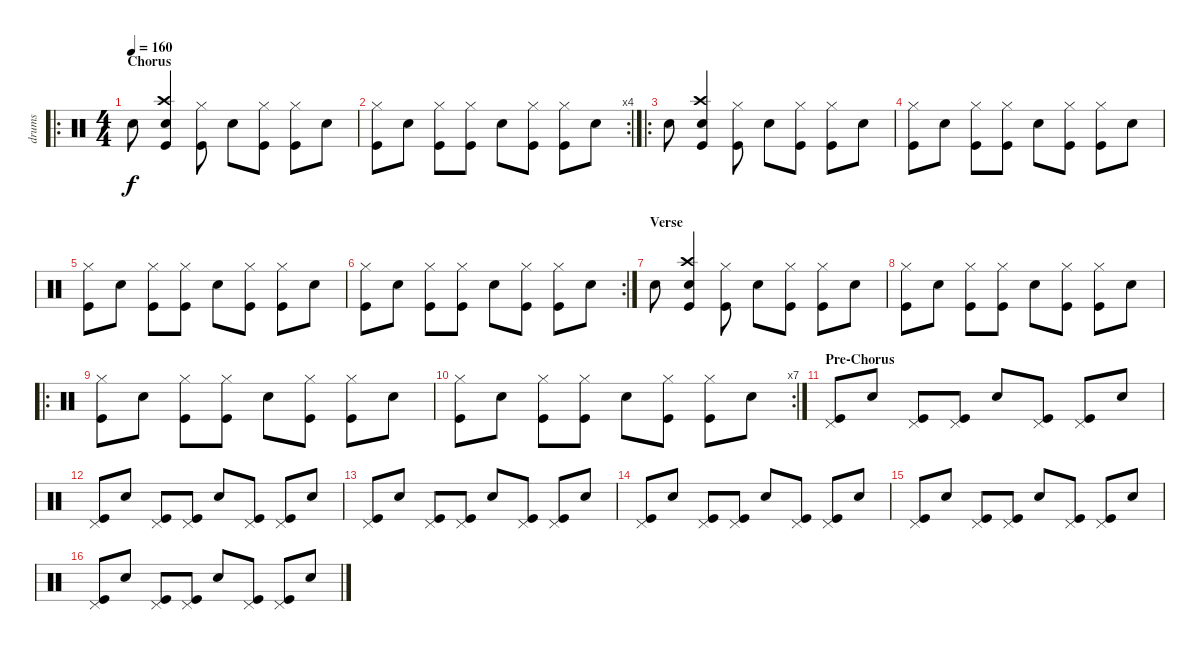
\track ("drums" "drums") {instrument percussion}
\staff {score}
\articulation defaults
\ro
\ts (4 4)
\section ("" "Chorus")
\tempo 160
\clef neutral
\ks c "Electric Snare (hit)".8{dy f}
("Crash high (hit)" "Electric Snare (hit)" "Kick (hit)").4 ("Hi-Hat (closed)" "Kick (hit)").8 "Electric Snare (hit)".8 ("Hi-Hat (closed)" "Kick (hit)").8 ("Hi-Hat (closed)" "Kick (hit)").8 "Electric Snare (hit)".8 |
\rc 4
("Hi-Hat (closed)" "Kick (hit)").8 "Electric Snare (hit)".8 ("Hi-Hat (closed)" "Kick (hit)").8 ("Hi-Hat (closed)" "Kick (hit)").8 "Electric Snare (hit)".8 ("Hi-Hat (closed)" "Kick (hit)").8 ("Hi-Hat (closed)" "Kick (hit)").8 "Electric Snare (hit)".8 |
\ro "Electric Snare (hit)".8
("Crash high (hit)" "Electric Snare (hit)" "Kick (hit)").4 ("Hi-Hat (closed)" "Kick (hit)").8 "Electric Snare (hit)".8 ("Hi-Hat (closed)" "Kick (hit)").8 ("Hi-Hat (closed)" "Kick (hit)").8 "Electric Snare (hit)".8 |
("Hi-Hat (closed)" "Kick (hit)").8 "Electric Snare (hit)".8 ("Hi-Hat (closed)" "Kick (hit)").8 ("Hi-Hat (closed)" "Kick (hit)").8 "Electric Snare (hit)".8 ("Hi-Hat (closed)" "Kick (hit)").8 ("Hi-Hat (closed)" "Kick (hit)").8 "Electric Snare (hit)".8 |
("Hi-Hat (closed)" "Kick (hit)").8 "Electric Snare (hit)".8 ("Hi-Hat (closed)" "Kick (hit)").8 ("Hi-Hat (closed)" "Kick (hit)").8 "Electric Snare (hit)".8 ("Hi-Hat (closed)" "Kick (hit)").8 ("Hi-Hat (closed)" "Kick (hit)").8 "Electric Snare (hit)".8 |
\rc 2
("Hi-Hat (closed)" "Kick (hit)").8 "Electric Snare (hit)".8 ("Hi-Hat (closed)" "Kick (hit)").8 ("Hi-Hat (closed)" "Kick (hit)").8 "Electric Snare (hit)".8 ("Hi-Hat (closed)" "Kick (hit)").8 ("Hi-Hat (closed)" "Kick (hit)").8 "Electric Snare (hit)".8 |
\section ("" "Verse")
"Electric Snare (hit)".8 ("Crash high (hit)" "Electric Snare (hit)" "Kick (hit)").4 ("Hi-Hat (closed)" "Kick (hit)").8 "Electric Snare (hit)".8 ("Hi-Hat (closed)" "Kick (hit)").8 ("Hi-Hat (closed)" "Kick (hit)").8 "Electric Snare (hit)".8 |
("Hi-Hat (closed)" "Kick (hit)").8 "Electric Snare (hit)".8 ("Hi-Hat (closed)" "Kick (hit)").8 ("Hi-Hat (closed)" "Kick (hit)").8 "Electric Snare (hit)".8 ("Hi-Hat (closed)" "Kick (hit)").8 ("Hi-Hat (closed)" "Kick (hit)").8 "Electric Snare (hit)".8 |
\ro
("Hi-Hat (closed)" "Kick (hit)").8 "Electric Snare (hit)".8 ("Hi-Hat (closed)" "Kick (hit)").8 ("Hi-Hat (closed)" "Kick (hit)").8 "Electric Snare (hit)".8 ("Hi-Hat (closed)" "Kick (hit)").8 ("Hi-Hat (closed)" "Kick (hit)").8 "Electric Snare (hit)".8 |
\rc 7
("Hi-Hat (closed)" "Kick (hit)").8 "Electric Snare (hit)".8 ("Hi-Hat (closed)" "Kick (hit)").8 ("Hi-Hat (closed)" "Kick (hit)").8 "Electric Snare (hit)".8 ("Hi-Hat (closed)" "Kick (hit)").8 ("Hi-Hat (closed)" "Kick (hit)").8 "Electric Snare (hit)".8 |
\section ("" "Pre-Chorus")
("Pedal Hi-Hat (hit)" "Kick (hit)").8 "Electric Snare (hit)".8 ("Pedal Hi-Hat (hit)" "Kick (hit)").8 ("Pedal Hi-Hat (hit)" "Kick (hit)").8 "Electric Snare (hit)".8 ("Pedal Hi-Hat (hit)" "Kick (hit)").8 ("Pedal Hi-Hat (hit)" "Kick (hit)").8 "Electric Snare (hit)".8 |
("Pedal Hi-Hat (hit)" "Kick (hit)").8 "Electric Snare (hit)".8 ("Pedal Hi-Hat (hit)" "Kick (hit)").8 ("Pedal Hi-Hat (hit)" "Kick (hit)").8 "Electric Snare (hit)".8 ("Pedal Hi-Hat (hit)" "Kick (hit)").8 ("Pedal Hi-Hat (hit)" "Kick (hit)").8 "Electric Snare (hit)".8 |
("Pedal Hi-Hat (hit)" "Kick (hit)").8 "Electric Snare (hit)".8 ("Pedal Hi-Hat (hit)" "Kick (hit)").8 ("Pedal Hi-Hat (hit)" "Kick (hit)").8 "Electric Snare (hit)".8 ("Pedal Hi-Hat (hit)" "Kick (hit)").8 ("Pedal Hi-Hat (hit)" "Kick (hit)").8 "Electric Snare (hit)".8 |
("Pedal Hi-Hat (hit)" "Kick (hit)").8 "Electric Snare (hit)".8 ("Pedal Hi-Hat (hit)" "Kick (hit)").8 ("Pedal Hi-Hat (hit)" "Kick (hit)").8 "Electric Snare (hit)".8 ("Pedal Hi-Hat (hit)" "Kick (hit)").8 ("Pedal Hi-Hat (hit)" "Kick (hit)").8 "Electric Snare (hit)".8 |
("Pedal Hi-Hat (hit)" "Kick (hit)").8 "Electric Snare (hit)".8 ("Pedal Hi-Hat (hit)" "Kick (hit)").8 ("Pedal Hi-Hat (hit)" "Kick (hit)").8 "Electric Snare (hit)".8 ("Pedal Hi-Hat (hit)" "Kick (hit)").8 ("Pedal Hi-Hat (hit)" "Kick (hit)").8 "Electric Snare (hit)".8 |
("Pedal Hi-Hat (hit)" "Kick (hit)").8 "Electric Snare (hit)".8 ("Pedal Hi-Hat (hit)" "Kick (hit)").8 ("Pedal Hi-Hat (hit)" "Kick (hit)").8 "Electric Snare (hit)".8 ("Pedal Hi-Hat (hit)" "Kick (hit)").8 ("Pedal Hi-Hat (hit)" "Kick (hit)").8 "Electric Snare (hit)".8
